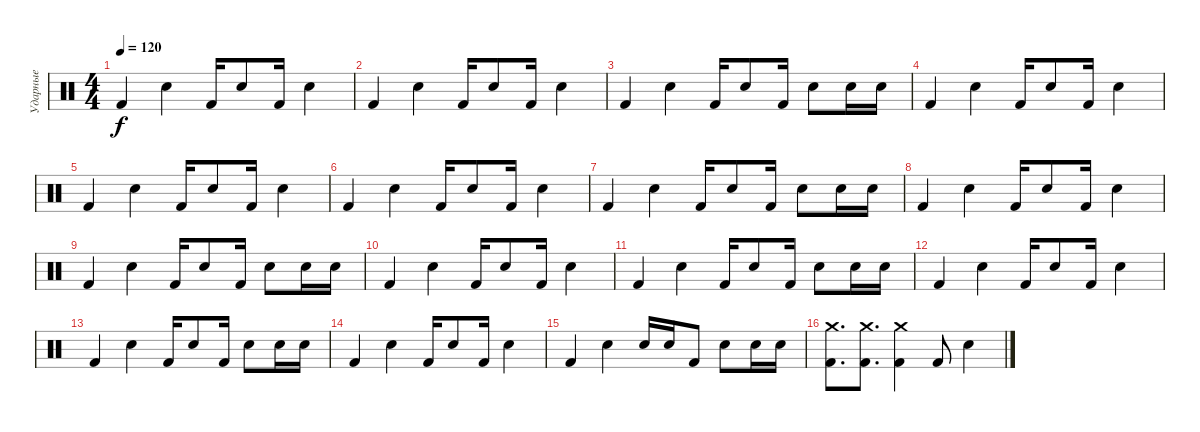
\track ("Ударные" "Ударные") {instrument percussion}
\staff {score}
\articulation defaults
\ts (4 4)
\tempo 120
\clef neutral
\ks c "Kick (hit) 2".4{dy f} "Snare (hit) 2".4 "Kick (hit) 2".16 "Snare (hit) 2".8 "Kick (hit) 2".16 "Snare (hit) 2".4
|
"Kick (hit) 2".4 "Snare (hit) 2".4 "Kick (hit) 2".16 "Snare (hit) 2".8 "Kick (hit) 2".16 "Snare (hit) 2".4 |
"Kick (hit) 2".4 "Snare (hit) 2".4 "Kick (hit) 2".16 "Snare (hit) 2".8 "Kick (hit) 2".16 "Snare (hit) 2".8 "Snare (hit) 2".16 "Snare (hit) 2".16 |
"Kick (hit) 2".4 "Snare (hit) 2".4 "Kick (hit) 2".16 "Snare (hit) 2".8 "Kick (hit) 2".16 "Snare (hit) 2".4 |
"Kick (hit) 2".4 "Snare (hit) 2".4 "Kick (hit) 2".16 "Snare (hit) 2".8 "Kick (hit) 2".16 "Snare (hit) 2".4 |
"Kick (hit) 2".4 "Snare (hit) 2".4 "Kick (hit) 2".16 "Snare (hit) 2".8 "Kick (hit) 2".16 "Snare (hit) 2".4 |
"Kick (hit) 2".4 "Snare (hit) 2".4 "Kick (hit) 2".16 "Snare (hit) 2".8 "Kick (hit) 2".16 "Snare (hit) 2".8 "Snare (hit) 2".16 "Snare (hit) 2".16 |
"Kick (hit) 2".4 "Snare (hit) 2".4 "Kick (hit) 2".16 "Snare (hit) 2".8 "Kick (hit) 2".16 "Snare (hit) 2".4 |
"Kick (hit) 2".4 "Snare (hit) 2".4 "Kick (hit) 2".16 "Snare (hit) 2".8 "Kick (hit) 2".16 "Snare (hit) 2".8 "Snare (hit) 2".16 "Snare (hit) 2".16 |
"Kick (hit) 2".4 "Snare (hit) 2".4 "Kick (hit) 2".16 "Snare (hit) 2".8 "Kick (hit) 2".16 "Snare (hit) 2".4 |
"Kick (hit) 2".4 "Snare (hit) 2".4 "Kick (hit) 2".16 "Snare (hit) 2".8 "Kick (hit) 2".16 "Snare (hit) 2".8 "Snare (hit) 2".16 "Snare (hit) 2".16 |
"Kick (hit) 2".4 "Snare (hit) 2".4 "Kick (hit) 2".16 "Snare (hit) 2".8 "Kick (hit) 2".16 "Snare (hit) 2".4 |
"Kick (hit) 2".4 "Snare (hit) 2".4 "Kick (hit) 2".16 "Snare (hit) 2".8 "Kick (hit) 2".16 "Snare (hit) 2".8 "Snare (hit) 2".16 "Snare (hit) 2".16 |
"Kick (hit) 2".4 "Snare (hit) 2".4 "Kick (hit) 2".16 "Snare (hit) 2".8 "Kick (hit) 2".16 "Snare (hit) 2".4 |
"Kick (hit) 2".4 "Snare (hit) 2".4 "Snare (hit) 2".16 "Snare (hit) 2".16 "Kick (hit) 2".8 "Snare (hit) 2".8 "Snare (hit) 2".16 "Snare (hit) 2".16 |
("Crash medium (hit)" "Kick (hit) 2").8{d} ("Crash medium (hit)" "Kick (hit) 2").8{d} ("Crash medium (hit)" "Kick (hit) 2").4 "Kick (hit) 2".8 "Snare (hit) 2".4
